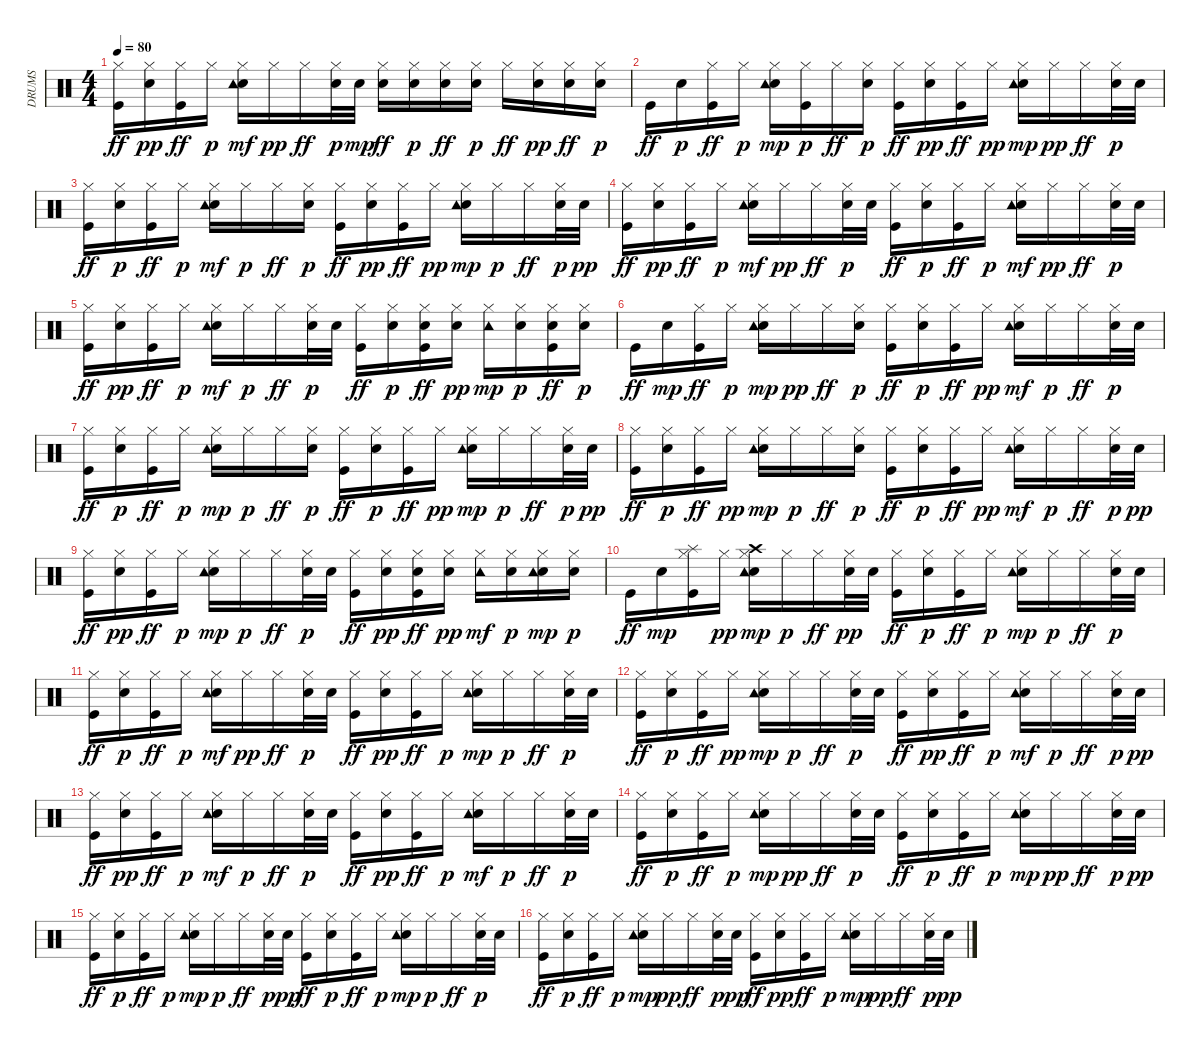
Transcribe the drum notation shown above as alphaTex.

\track ("DRUMS" "DRUMS") {instrument percussion}
\staff {score}
\articulation defaults
\ts (4 4)
\tempo 80
\clef neutral
\ks c
("Kick (hit)" "Hi-Hat (closed)").16{dy ff} ("Snare (hit) 2" "Hi-Hat (closed)").16{dy pp} ("Kick (hit)" "Hi-Hat (closed)").16{dy ff} "Hi-Hat (closed)".16{dy p} ("Snare (hit) 2" "Hi-Hat (closed)" "Tambourine (hit)").16{dy mf} "Hi-Hat (closed)".16{dy pp} "Hi-Hat (closed)".16{dy ff} ("Hi-Hat (closed)" "Snare (hit) 2").32{dy p} "Snare (hit) 2".32{dy mp} ("Snare (hit) 2" "Hi-Hat (closed)").16{dy ff} ("Snare (hit) 2" "Hi-Hat (closed)").16{dy p} ("Snare (hit) 2" "Hi-Hat (closed)").16{dy ff} ("Snare (hit) 2" "Hi-Hat (closed)").16{dy p} "Hi-Hat (closed)".16{dy ff} ("Snare (hit) 2" "Hi-Hat (closed)").16{dy pp} ("Snare (hit) 2" "Hi-Hat (closed)").16{dy ff} ("Snare (hit) 2" "Hi-Hat (closed)").16{dy p} |
"Kick (hit)".16{dy ff} "Snare (hit) 2".16{dy p} ("Kick (hit)" "Hi-Hat (closed)").16{dy ff} "Hi-Hat (closed)".16{dy p} ("Snare (hit) 2" "Hi-Hat (closed)" "Tambourine (hit)").16{dy mp} ("Kick (hit)" "Hi-Hat (closed)").16{dy p} "Hi-Hat (closed)".16{dy ff} ("Snare (hit) 2" "Hi-Hat (closed)").16{dy p} ("Kick (hit)" "Hi-Hat (closed)").16{dy ff} ("Snare (hit) 2" "Hi-Hat (closed)").16{dy pp} ("Kick (hit)" "Hi-Hat (closed)").16{dy ff} "Hi-Hat (closed)".16{dy pp} ("Snare (hit) 2" "Hi-Hat (closed)" "Tambourine (hit)").16{dy mp} "Hi-Hat (closed)".16{dy pp} "Hi-Hat (closed)".16{dy ff} ("Hi-Hat (closed)" "Snare (hit) 2").32{dy p} "Snare (hit) 2".32 |
("Kick (hit)" "Hi-Hat (closed)").16{dy ff} ("Snare (hit) 2" "Hi-Hat (closed)").16{dy p} ("Kick (hit)" "Hi-Hat (closed)").16{dy ff} "Hi-Hat (closed)".16{dy p} ("Snare (hit) 2" "Hi-Hat (closed)" "Tambourine (hit)").16{dy mf} "Hi-Hat (closed)".16{dy p} "Hi-Hat (closed)".16{dy ff} ("Snare (hit) 2" "Hi-Hat (closed)").16{dy p} ("Kick (hit)" "Hi-Hat (closed)").16{dy ff} ("Snare (hit) 2" "Hi-Hat (closed)").16{dy pp} ("Kick (hit)" "Hi-Hat (closed)").16{dy ff} "Hi-Hat (closed)".16{dy pp} ("Snare (hit) 2" "Hi-Hat (closed)" "Tambourine (hit)").16{dy mp} "Hi-Hat (closed)".16{dy p} "Hi-Hat (closed)".16{dy ff} ("Hi-Hat (closed)" "Snare (hit) 2").32{dy p} "Snare (hit) 2".32{dy pp} |
("Kick (hit)" "Hi-Hat (closed)").16{dy ff} ("Snare (hit) 2" "Hi-Hat (closed)").16{dy pp} ("Kick (hit)" "Hi-Hat (closed)").16{dy ff} "Hi-Hat (closed)".16{dy p} ("Snare (hit) 2" "Hi-Hat (closed)" "Tambourine (hit)").16{dy mf} "Hi-Hat (closed)".16{dy pp} "Hi-Hat (closed)".16{dy ff} ("Hi-Hat (closed)" "Snare (hit) 2").32{dy p} "Snare (hit) 2".32 ("Kick (hit)" "Hi-Hat (closed)").16{dy ff} ("Snare (hit) 2" "Hi-Hat (closed)").16{dy p} ("Kick (hit)" "Hi-Hat (closed)").16{dy ff} "Hi-Hat (closed)".16{dy p} ("Snare (hit) 2" "Hi-Hat (closed)" "Tambourine (hit)").16{dy mf} "Hi-Hat (closed)".16{dy pp} "Hi-Hat (closed)".16{dy ff} ("Hi-Hat (closed)" "Snare (hit) 2").32{dy p} "Snare (hit) 2".32 |
("Kick (hit)" "Hi-Hat (closed)").16{dy ff} ("Snare (hit) 2" "Hi-Hat (closed)").16{dy pp} ("Kick (hit)" "Hi-Hat (closed)").16{dy ff} "Hi-Hat (closed)".16{dy p} ("Snare (hit) 2" "Hi-Hat (closed)" "Tambourine (hit)").16{dy mf} "Hi-Hat (closed)".16{dy p} "Hi-Hat (closed)".16{dy ff} ("Hi-Hat (closed)" "Snare (hit) 2").32{dy p} "Snare (hit) 2".32 ("Kick (hit)" "Hi-Hat (closed)").16{dy ff} ("Snare (hit) 2" "Hi-Hat (closed)").16{dy p} ("Kick (hit)" "Snare (hit) 2" "Hi-Hat (closed)").16{dy ff} ("Snare (hit) 2" "Hi-Hat (closed)").16{dy pp} ("Hi-Hat (closed)" "Tambourine (hit)").16{dy mp} ("Snare (hit) 2" "Hi-Hat (closed)").16{dy p} ("Kick (hit)" "Snare (hit) 2" "Hi-Hat (closed)").16{dy ff} ("Snare (hit) 2" "Hi-Hat (closed)").16{dy p} |
"Kick (hit)".16{dy ff} "Snare (hit) 2".16{dy mp} ("Kick (hit)" "Hi-Hat (closed)").16{dy ff} "Hi-Hat (closed)".16{dy p} ("Snare (hit) 2" "Hi-Hat (closed)" "Tambourine (hit)").16{dy mp} "Hi-Hat (closed)".16{dy pp} "Hi-Hat (closed)".16{dy ff} ("Snare (hit) 2" "Hi-Hat (closed)").16{dy p} ("Kick (hit)" "Hi-Hat (closed)").16{dy ff} ("Snare (hit) 2" "Hi-Hat (closed)").16{dy p} ("Kick (hit)" "Hi-Hat (closed)").16{dy ff} "Hi-Hat (closed)".16{dy pp} ("Snare (hit) 2" "Hi-Hat (closed)" "Tambourine (hit)").16{dy mf} "Hi-Hat (closed)".16{dy p} "Hi-Hat (closed)".16{dy ff} ("Hi-Hat (closed)" "Snare (hit) 2").32{dy p} "Snare (hit) 2".32 |
("Kick (hit)" "Hi-Hat (closed)").16{dy ff} ("Snare (hit) 2" "Hi-Hat (closed)").16{dy p} ("Kick (hit)" "Hi-Hat (closed)").16{dy ff} "Hi-Hat (closed)".16{dy p} ("Snare (hit) 2" "Hi-Hat (closed)" "Tambourine (hit)").16{dy mp} "Hi-Hat (closed)".16{dy p} "Hi-Hat (closed)".16{dy ff} ("Snare (hit) 2" "Hi-Hat (closed)").16{dy p} ("Kick (hit)" "Hi-Hat (closed)").16{dy ff} ("Snare (hit) 2" "Hi-Hat (closed)").16{dy p} ("Kick (hit)" "Hi-Hat (closed)").16{dy ff} "Hi-Hat (closed)".16{dy pp} ("Snare (hit) 2" "Hi-Hat (closed)" "Tambourine (hit)").16{dy mp} "Hi-Hat (closed)".16{dy p} "Hi-Hat (closed)".16{dy ff} ("Hi-Hat (closed)" "Snare (hit) 2").32{dy p} "Snare (hit) 2".32{dy pp} |
("Kick (hit)" "Hi-Hat (closed)").16{dy ff} ("Snare (hit) 2" "Hi-Hat (closed)").16{dy p} ("Kick (hit)" "Hi-Hat (closed)").16{dy ff} "Hi-Hat (closed)".16{dy pp} ("Snare (hit) 2" "Hi-Hat (closed)" "Tambourine (hit)").16{dy mp} "Hi-Hat (closed)".16{dy p} "Hi-Hat (closed)".16{dy ff} ("Snare (hit) 2" "Hi-Hat (closed)").16{dy p} ("Kick (hit)" "Hi-Hat (closed)").16{dy ff} ("Snare (hit) 2" "Hi-Hat (closed)").16{dy p} ("Kick (hit)" "Hi-Hat (closed)").16{dy ff} "Hi-Hat (closed)".16{dy pp} ("Snare (hit) 2" "Hi-Hat (closed)" "Tambourine (hit)").16{dy mf} "Hi-Hat (closed)".16{dy p} "Hi-Hat (closed)".16{dy ff} ("Hi-Hat (closed)" "Snare (hit) 2").32{dy p} "Snare (hit) 2".32{dy pp} |
("Kick (hit)" "Hi-Hat (closed)").16{dy ff} ("Snare (hit) 2" "Hi-Hat (closed)").16{dy pp} ("Kick (hit)" "Hi-Hat (closed)").16{dy ff} "Hi-Hat (closed)".16{dy p} ("Snare (hit) 2" "Hi-Hat (closed)" "Tambourine (hit)").16{dy mp} "Hi-Hat (closed)".16{dy p} "Hi-Hat (closed)".16{dy ff} ("Hi-Hat (closed)" "Snare (hit) 2").32{dy p} "Snare (hit) 2".32 ("Kick (hit)" "Hi-Hat (closed)").16{dy ff} ("Snare (hit) 2" "Hi-Hat (closed)").16{dy pp} ("Kick (hit)" "Snare (hit) 2" "Hi-Hat (closed)").16{dy ff} ("Snare (hit) 2" "Hi-Hat (closed)").16{dy pp} ("Hi-Hat (closed)" "Tambourine (hit)").16{dy mf} ("Snare (hit) 2" "Hi-Hat (closed)").16{dy p} ("Snare (hit) 2" "Hi-Hat (closed)" "Tambourine (hit)").16{dy mp} ("Snare (hit) 2" "Hi-Hat (closed)").16{dy p} |
"Kick (hit)".16{dy ff} "Snare (hit) 2".16{dy mp} ("Kick (hit)" "Hi-Hat (closed)" "Splash (hit)").16 "Hi-Hat (closed)".16{dy pp} ("Snare (hit) 2" "Hi-Hat (closed)" "Crash high (hit)" "Tambourine (hit)").16{dy mp} "Hi-Hat (closed)".16{dy p} "Hi-Hat (closed)".16{dy ff} ("Hi-Hat (closed)" "Snare (hit) 2").32{dy pp} "Snare (hit) 2".32 ("Kick (hit)" "Hi-Hat (closed)").16{dy ff} ("Snare (hit) 2" "Hi-Hat (closed)").16{dy p} ("Kick (hit)" "Hi-Hat (closed)").16{dy ff} "Hi-Hat (closed)".16{dy p} ("Snare (hit) 2" "Hi-Hat (closed)" "Tambourine (hit)").16{dy mp} "Hi-Hat (closed)".16{dy p} "Hi-Hat (closed)".16{dy ff} ("Hi-Hat (closed)" "Snare (hit) 2").32{dy p} "Snare (hit) 2".32 |
("Kick (hit)" "Hi-Hat (closed)").16{dy ff} ("Snare (hit) 2" "Hi-Hat (closed)").16{dy p} ("Kick (hit)" "Hi-Hat (closed)").16{dy ff} "Hi-Hat (closed)".16{dy p} ("Snare (hit) 2" "Hi-Hat (closed)" "Tambourine (hit)").16{dy mf} "Hi-Hat (closed)".16{dy pp} "Hi-Hat (closed)".16{dy ff} ("Hi-Hat (closed)" "Snare (hit) 2").32{dy p} "Snare (hit) 2".32 ("Kick (hit)" "Hi-Hat (closed)").16{dy ff} ("Snare (hit) 2" "Hi-Hat (closed)").16{dy pp} ("Kick (hit)" "Hi-Hat (closed)").16{dy ff} "Hi-Hat (closed)".16{dy p} ("Snare (hit) 2" "Hi-Hat (closed)" "Tambourine (hit)").16{dy mp} "Hi-Hat (closed)".16{dy p} "Hi-Hat (closed)".16{dy ff} ("Hi-Hat (closed)" "Snare (hit) 2").32{dy p} "Snare (hit) 2".32 |
("Kick (hit)" "Hi-Hat (closed)").16{dy ff} ("Snare (hit) 2" "Hi-Hat (closed)").16{dy p} ("Kick (hit)" "Hi-Hat (closed)").16{dy ff} "Hi-Hat (closed)".16{dy pp} ("Snare (hit) 2" "Hi-Hat (closed)" "Tambourine (hit)").16{dy mp} "Hi-Hat (closed)".16{dy p} "Hi-Hat (closed)".16{dy ff} ("Hi-Hat (closed)" "Snare (hit) 2").32{dy p} "Snare (hit) 2".32 ("Kick (hit)" "Hi-Hat (closed)").16{dy ff} ("Snare (hit) 2" "Hi-Hat (closed)").16{dy pp} ("Kick (hit)" "Hi-Hat (closed)").16{dy ff} "Hi-Hat (closed)".16{dy p} ("Snare (hit) 2" "Hi-Hat (closed)" "Tambourine (hit)").16{dy mf} "Hi-Hat (closed)".16{dy p} "Hi-Hat (closed)".16{dy ff} ("Hi-Hat (closed)" "Snare (hit) 2").32{dy p} "Snare (hit) 2".32{dy pp} |
("Kick (hit)" "Hi-Hat (closed)").16{dy ff} ("Snare (hit) 2" "Hi-Hat (closed)").16{dy pp} ("Kick (hit)" "Hi-Hat (closed)").16{dy ff} "Hi-Hat (closed)".16{dy p} ("Snare (hit) 2" "Hi-Hat (closed)" "Tambourine (hit)").16{dy mf} "Hi-Hat (closed)".16{dy p} "Hi-Hat (closed)".16{dy ff} ("Hi-Hat (closed)" "Snare (hit) 2").32{dy p} "Snare (hit) 2".32 ("Kick (hit)" "Hi-Hat (closed)").16{dy ff} ("Snare (hit) 2" "Hi-Hat (closed)").16{dy pp} ("Kick (hit)" "Hi-Hat (closed)").16{dy ff} "Hi-Hat (closed)".16{dy p} ("Snare (hit) 2" "Hi-Hat (closed)" "Tambourine (hit)").16{dy mf} "Hi-Hat (closed)".16{dy p} "Hi-Hat (closed)".16{dy ff} ("Hi-Hat (closed)" "Snare (hit) 2").32{dy p} "Snare (hit) 2".32 |
("Kick (hit)" "Hi-Hat (closed)").16{dy ff} ("Snare (hit) 2" "Hi-Hat (closed)").16{dy p} ("Kick (hit)" "Hi-Hat (closed)").16{dy ff} "Hi-Hat (closed)".16{dy p} ("Snare (hit) 2" "Hi-Hat (closed)" "Tambourine (hit)").16{dy mp} "Hi-Hat (closed)".16{dy pp} "Hi-Hat (closed)".16{dy ff} ("Hi-Hat (closed)" "Snare (hit) 2").32{dy p} "Snare (hit) 2".32 ("Kick (hit)" "Hi-Hat (closed)").16{dy ff} ("Snare (hit) 2" "Hi-Hat (closed)").16{dy p} ("Kick (hit)" "Hi-Hat (closed)").16{dy ff} "Hi-Hat (closed)".16{dy p} ("Snare (hit) 2" "Hi-Hat (closed)" "Tambourine (hit)").16{dy mp} "Hi-Hat (closed)".16{dy pp} "Hi-Hat (closed)".16{dy ff} ("Hi-Hat (closed)" "Snare (hit) 2").32{dy p} "Snare (hit) 2".32{dy pp} |
("Kick (hit)" "Hi-Hat (closed)").16{dy ff} ("Snare (hit) 2" "Hi-Hat (closed)").16{dy p} ("Kick (hit)" "Hi-Hat (closed)").16{dy ff} "Hi-Hat (closed)".16{dy p} ("Snare (hit) 2" "Hi-Hat (closed)" "Tambourine (hit)").16{dy mp} "Hi-Hat (closed)".16{dy p} "Hi-Hat (closed)".16{dy ff} ("Hi-Hat (closed)" "Snare (hit) 2").32{dy p} "Snare (hit) 2".32{dy pp} ("Kick (hit)" "Hi-Hat (closed)").16{dy ff} ("Snare (hit) 2" "Hi-Hat (closed)").16{dy p} ("Kick (hit)" "Hi-Hat (closed)").16{dy ff} "Hi-Hat (closed)".16{dy p} ("Snare (hit) 2" "Hi-Hat (closed)" "Tambourine (hit)").16{dy mp} "Hi-Hat (closed)".16{dy p} "Hi-Hat (closed)".16{dy ff} ("Hi-Hat (closed)" "Snare (hit) 2").32{dy p} "Snare (hit) 2".32 |
("Kick (hit)" "Hi-Hat (closed)").16{dy ff} ("Snare (hit) 2" "Hi-Hat (closed)").16{dy p} ("Kick (hit)" "Hi-Hat (closed)").16{dy ff} "Hi-Hat (closed)".16{dy p} ("Snare (hit) 2" "Hi-Hat (closed)" "Tambourine (hit)").16{dy mp} "Hi-Hat (closed)".16{dy pp} "Hi-Hat (closed)".16{dy ff} ("Hi-Hat (closed)" "Snare (hit) 2").32{dy p} "Snare (hit) 2".32{dy pp} ("Kick (hit)" "Hi-Hat (closed)").16{dy ff} ("Snare (hit) 2" "Hi-Hat (closed)").16{dy pp} ("Kick (hit)" "Hi-Hat (closed)").16{dy ff} "Hi-Hat (closed)".16{dy p} ("Snare (hit) 2" "Hi-Hat (closed)" "Tambourine (hit)").16{dy mp} "Hi-Hat (closed)".16{dy pp} "Hi-Hat (closed)".16{dy ff} ("Hi-Hat (closed)" "Snare (hit) 2").32{dy p} "Snare (hit) 2".32{dy pp}
